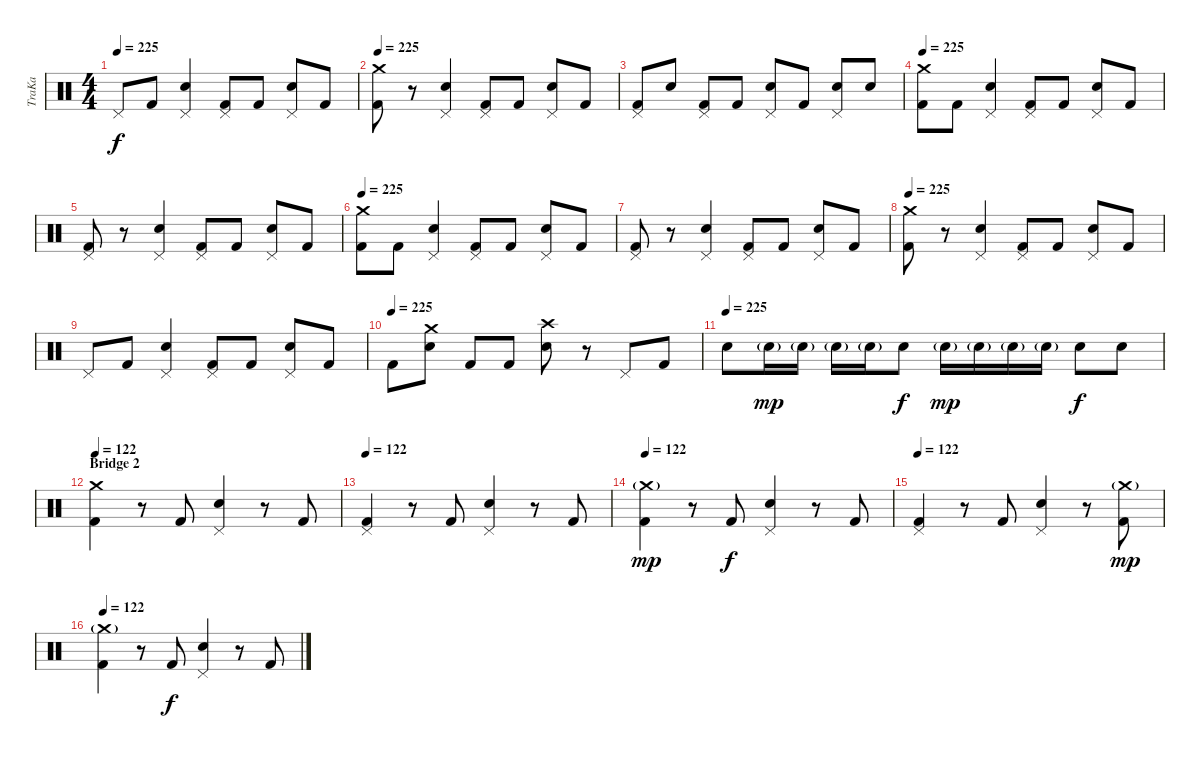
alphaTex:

\track ("TraKa" "TraKa") {instrument percussion}
\staff {score}
\articulation defaults
\ts (4 4)
\tempo 225
\clef neutral
\ks c "Pedal Hi-Hat (hit)".8{dy f} "Kick (hit) 2".8
("Pedal Hi-Hat (hit)" "Electric Snare (hit)").4 ("Pedal Hi-Hat (hit)" "Kick (hit) 2").8 "Kick (hit) 2".8 ("Pedal Hi-Hat (hit)" "Electric Snare (hit)").8 "Kick (hit) 2".8 |
\tempo 225
("Crash medium (hit)" "Kick (hit) 2").8 r.8 ("Pedal Hi-Hat (hit)" "Electric Snare (hit)").4 ("Pedal Hi-Hat (hit)" "Kick (hit) 2").8 "Kick (hit) 2".8 ("Pedal Hi-Hat (hit)" "Electric Snare (hit)").8 "Kick (hit) 2".8 |
("Pedal Hi-Hat (hit)" "Kick (hit) 2").8 "Electric Snare (hit)".8 ("Pedal Hi-Hat (hit)" "Kick (hit) 2").8 "Kick (hit) 2".8 ("Pedal Hi-Hat (hit)" "Electric Snare (hit)").8 "Kick (hit) 2".8 ("Pedal Hi-Hat (hit)" "Electric Snare (hit)").8 "Electric Snare (hit)".8 |
\tempo 225
("Crash medium (hit)" "Kick (hit) 2").8 "Kick (hit) 2".8 ("Pedal Hi-Hat (hit)" "Electric Snare (hit)").4 ("Pedal Hi-Hat (hit)" "Kick (hit) 2").8 "Kick (hit) 2".8 ("Pedal Hi-Hat (hit)" "Electric Snare (hit)").8 "Kick (hit) 2".8 |
("Pedal Hi-Hat (hit)" "Kick (hit) 2").8 r.8 ("Pedal Hi-Hat (hit)" "Electric Snare (hit)").4 ("Pedal Hi-Hat (hit)" "Kick (hit) 2").8 "Kick (hit) 2".8 ("Pedal Hi-Hat (hit)" "Electric Snare (hit)").8 "Kick (hit) 2".8 |
\tempo 225
("Crash medium (hit)" "Kick (hit) 2").8 "Kick (hit) 2".8 ("Pedal Hi-Hat (hit)" "Electric Snare (hit)").4 ("Pedal Hi-Hat (hit)" "Kick (hit) 2").8 "Kick (hit) 2".8 ("Pedal Hi-Hat (hit)" "Electric Snare (hit)").8 "Kick (hit) 2".8 |
("Pedal Hi-Hat (hit)" "Kick (hit) 2").8 r.8 ("Pedal Hi-Hat (hit)" "Electric Snare (hit)").4 ("Pedal Hi-Hat (hit)" "Kick (hit) 2").8 "Kick (hit) 2".8 ("Pedal Hi-Hat (hit)" "Electric Snare (hit)").8 "Kick (hit) 2".8 |
\tempo 225
("Crash medium (hit)" "Kick (hit) 2").8 r.8 ("Pedal Hi-Hat (hit)" "Electric Snare (hit)").4 ("Pedal Hi-Hat (hit)" "Kick (hit) 2").8 "Kick (hit) 2".8 ("Pedal Hi-Hat (hit)" "Electric Snare (hit)").8 "Kick (hit) 2".8 |
"Pedal Hi-Hat (hit)".8 "Kick (hit) 2".8 ("Pedal Hi-Hat (hit)" "Electric Snare (hit)").4 ("Pedal Hi-Hat (hit)" "Kick (hit) 2").8 "Kick (hit) 2".8 ("Pedal Hi-Hat (hit)" "Electric Snare (hit)").8 "Kick (hit) 2".8 |
\tempo (225)
"Kick (hit) 2".8 ("Crash medium (hit)" "Electric Snare (hit)").8 "Kick (hit) 2".8 "Kick (hit) 2".8 ("Crash high (hit)" "Electric Snare (hit)").8 r.8 "Pedal Hi-Hat (hit)".8 "Kick (hit) 2".8 |
\tempo (225)
"Electric Snare (hit)".8 "Electric Snare (hit)"{g}.16{dy mp} "Electric Snare (hit)"{g}.16 "Electric Snare (hit)"{g}.16 "Electric Snare (hit)"{g}.16 "Electric Snare (hit)".8{dy f} "Electric Snare (hit)"{g}.16{dy mp} "Electric Snare (hit)"{g}.16 "Electric Snare (hit)"{g}.16 "Electric Snare (hit)"{g}.16 "Electric Snare (hit)".8{dy f} "Electric Snare (hit)".8 |
\section ("" "Bridge 2")
\tempo 122
("Crash medium (hit)" "Kick (hit) 2").4 r.8 "Kick (hit) 2".8 ("Pedal Hi-Hat (hit)" "Electric Snare (hit)").4 r.8 "Kick (hit) 2".8 |
\tempo 125
\tempo 122
("Pedal Hi-Hat (hit)" "Kick (hit) 2").4 r.8 "Kick (hit) 2".8 ("Pedal Hi-Hat (hit)" "Electric Snare (hit)").4 r.8 "Kick (hit) 2".8 |
\tempo 125
\tempo 122
("Crash medium (hit)"{g} "Kick (hit) 2").4{dy mp} r.8 "Kick (hit) 2".8{dy f} ("Pedal Hi-Hat (hit)" "Electric Snare (hit)").4 r.8 "Kick (hit) 2".8 |
\tempo 122
("Pedal Hi-Hat (hit)" "Kick (hit) 2").4 r.8 "Kick (hit) 2".8 ("Pedal Hi-Hat (hit)" "Electric Snare (hit)").4 r.8 ("Crash medium (hit)"{g} "Kick (hit) 2").8{dy mp} |
\tempo 125
\tempo 122
("Crash medium (hit)"{g} "Kick (hit) 2").4 r.8 "Kick (hit) 2".8{dy f} ("Pedal Hi-Hat (hit)" "Electric Snare (hit)").4 r.8 "Kick (hit) 2".8
